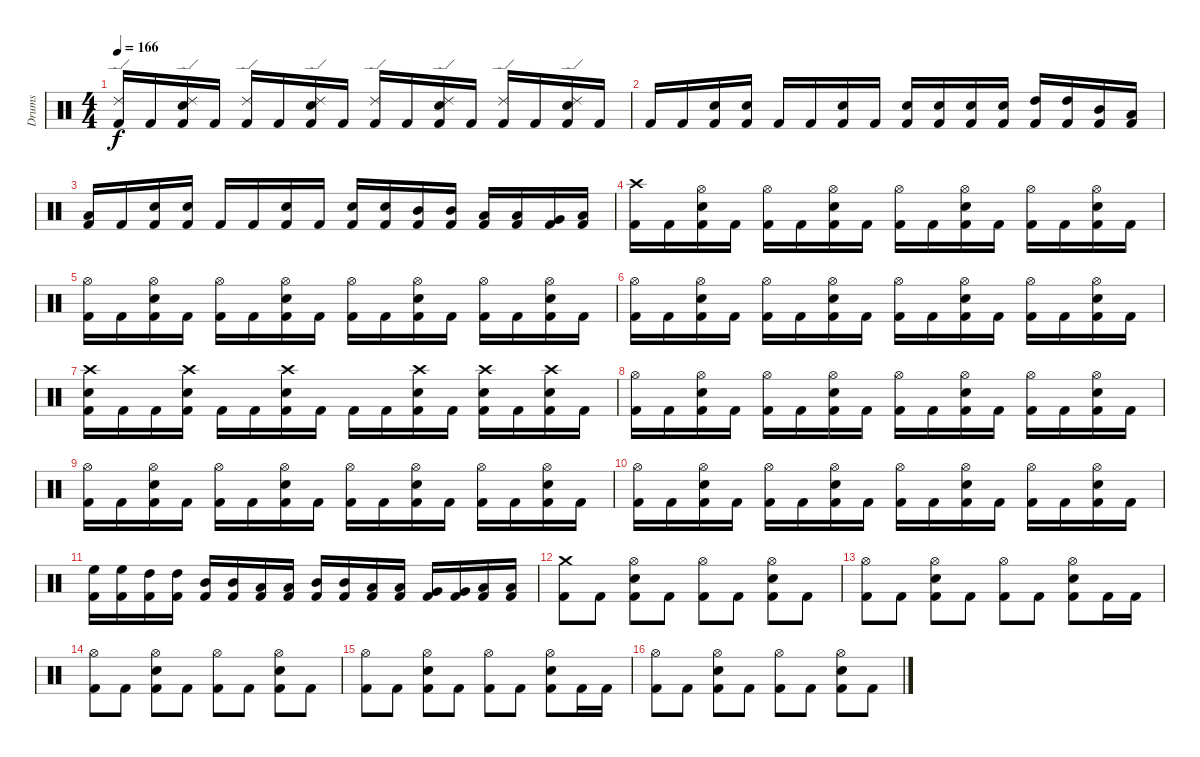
\track ("Drums" "Drums") {instrument percussion}
\staff {score}
\articulation defaults
\ts (4 4)
\tempo 166
\clef neutral
\ks c
("Kick (hit) 2" "Ride (edge) 2").16{dy f} "Kick (hit) 2".16 ("Kick (hit) 2" "Electric Snare (hit)" "Ride (edge) 2").16 "Kick (hit) 2".16 ("Kick (hit) 2" "Ride (edge) 2").16 "Kick (hit) 2".16 ("Kick (hit) 2" "Electric Snare (hit)" "Ride (edge) 2").16 "Kick (hit) 2".16 ("Kick (hit) 2" "Ride (edge) 2").16 "Kick (hit) 2".16 ("Kick (hit) 2" "Electric Snare (hit)" "Ride (edge) 2").16 "Kick (hit) 2".16 ("Kick (hit) 2" "Ride (edge) 2").16 "Kick (hit) 2".16 ("Kick (hit) 2" "Electric Snare (hit)" "Ride (edge) 2").16 "Kick (hit) 2".16 |
"Kick (hit) 2".16 "Kick (hit) 2".16 ("Kick (hit) 2" "Electric Snare (hit)").16 ("Kick (hit) 2" "Electric Snare (hit)").16 "Kick (hit) 2".16 "Kick (hit) 2".16 ("Kick (hit) 2" "Electric Snare (hit)").16 "Kick (hit) 2".16 ("Kick (hit) 2" "Electric Snare (hit)").16 ("Kick (hit) 2" "Electric Snare (hit)").16 ("Kick (hit) 2" "Electric Snare (hit)").16 ("Kick (hit) 2" "Electric Snare (hit)").16 ("Kick (hit) 2" "High Tom (hit)").16 ("Kick (hit) 2" "High Tom (hit)").16 ("Kick (hit) 2" "Mid Tom (hit)").16 ("Kick (hit) 2" "Low Tom (hit)").16 |
("Kick (hit) 2" "Low Floor Tom (hit)").16 "Kick (hit) 2".16 ("Kick (hit) 2" "Electric Snare (hit)").16 ("Kick (hit) 2" "Electric Snare (hit)").16 "Kick (hit) 2".16 "Kick (hit) 2".16 ("Kick (hit) 2" "Electric Snare (hit)").16 "Kick (hit) 2".16 ("Kick (hit) 2" "Electric Snare (hit)").16 ("Kick (hit) 2" "Electric Snare (hit)").16 ("Kick (hit) 2" "Mid Tom (hit)").16 ("Kick (hit) 2" "Mid Tom (hit)").16 ("Kick (hit) 2" "Low Tom (hit)").16 ("Kick (hit) 2" "Low Tom (hit)").16 ("Kick (hit) 2" "Very Low Tom (hit)").16 ("Kick (hit) 2" "Low Floor Tom (hit)").16 |
\section ("" "")
("Kick (hit) 2" "Crash high (hit)").16 "Kick (hit) 2".16 ("Kick (hit) 2" "Electric Snare (hit)" "Hi-Hat (open)").16 "Kick (hit) 2".16 ("Kick (hit) 2" "Hi-Hat (open)").16 "Kick (hit) 2".16 ("Kick (hit) 2" "Electric Snare (hit)" "Hi-Hat (open)").16 "Kick (hit) 2".16 ("Kick (hit) 2" "Hi-Hat (open)").16 "Kick (hit) 2".16 ("Kick (hit) 2" "Electric Snare (hit)" "Hi-Hat (open)").16 "Kick (hit) 2".16 ("Kick (hit) 2" "Hi-Hat (open)").16 "Kick (hit) 2".16 ("Kick (hit) 2" "Electric Snare (hit)" "Hi-Hat (open)").16 "Kick (hit) 2".16 |
("Kick (hit) 2" "Hi-Hat (open)").16 "Kick (hit) 2".16 ("Kick (hit) 2" "Electric Snare (hit)" "Hi-Hat (open)").16 "Kick (hit) 2".16 ("Kick (hit) 2" "Hi-Hat (open)").16 "Kick (hit) 2".16 ("Kick (hit) 2" "Electric Snare (hit)" "Hi-Hat (open)").16 "Kick (hit) 2".16 ("Kick (hit) 2" "Hi-Hat (open)").16 "Kick (hit) 2".16 ("Kick (hit) 2" "Electric Snare (hit)" "Hi-Hat (open)").16 "Kick (hit) 2".16 ("Kick (hit) 2" "Hi-Hat (open)").16 "Kick (hit) 2".16 ("Kick (hit) 2" "Electric Snare (hit)" "Hi-Hat (open)").16 "Kick (hit) 2".16 |
("Kick (hit) 2" "Hi-Hat (open)").16 "Kick (hit) 2".16 ("Kick (hit) 2" "Electric Snare (hit)" "Hi-Hat (open)").16 "Kick (hit) 2".16 ("Kick (hit) 2" "Hi-Hat (open)").16 "Kick (hit) 2".16 ("Kick (hit) 2" "Electric Snare (hit)" "Hi-Hat (open)").16 "Kick (hit) 2".16 ("Kick (hit) 2" "Hi-Hat (open)").16 "Kick (hit) 2".16 ("Kick (hit) 2" "Electric Snare (hit)" "Hi-Hat (open)").16 "Kick (hit) 2".16 ("Kick (hit) 2" "Hi-Hat (open)").16 "Kick (hit) 2".16 ("Kick (hit) 2" "Electric Snare (hit)" "Hi-Hat (open)").16 "Kick (hit) 2".16 |
("Kick (hit) 2" "Electric Snare (hit)" "Crash high (hit)").16 "Kick (hit) 2".16 "Kick (hit) 2".16 ("Kick (hit) 2" "Electric Snare (hit)" "Crash high (hit)").16 "Kick (hit) 2".16 "Kick (hit) 2".16 ("Kick (hit) 2" "Electric Snare (hit)" "Crash high (hit)").16 "Kick (hit) 2".16 "Kick (hit) 2".16 "Kick (hit) 2".16 ("Kick (hit) 2" "Electric Snare (hit)" "Crash high (hit)").16 "Kick (hit) 2".16 ("Kick (hit) 2" "Electric Snare (hit)" "Crash high (hit)").16 "Kick (hit) 2".16 ("Kick (hit) 2" "Electric Snare (hit)" "Crash high (hit)").16 "Kick (hit) 2".16 |
("Kick (hit) 2" "Hi-Hat (open)").16 "Kick (hit) 2".16 ("Kick (hit) 2" "Electric Snare (hit)" "Hi-Hat (open)").16 "Kick (hit) 2".16 ("Kick (hit) 2" "Hi-Hat (open)").16 "Kick (hit) 2".16 ("Kick (hit) 2" "Electric Snare (hit)" "Hi-Hat (open)").16 "Kick (hit) 2".16 ("Kick (hit) 2" "Hi-Hat (open)").16 "Kick (hit) 2".16 ("Kick (hit) 2" "Electric Snare (hit)" "Hi-Hat (open)").16 "Kick (hit) 2".16 ("Kick (hit) 2" "Hi-Hat (open)").16 "Kick (hit) 2".16 ("Kick (hit) 2" "Electric Snare (hit)" "Hi-Hat (open)").16 "Kick (hit) 2".16 |
("Kick (hit) 2" "Hi-Hat (open)").16 "Kick (hit) 2".16 ("Kick (hit) 2" "Electric Snare (hit)" "Hi-Hat (open)").16 "Kick (hit) 2".16 ("Kick (hit) 2" "Hi-Hat (open)").16 "Kick (hit) 2".16 ("Kick (hit) 2" "Electric Snare (hit)" "Hi-Hat (open)").16 "Kick (hit) 2".16 ("Kick (hit) 2" "Hi-Hat (open)").16 "Kick (hit) 2".16 ("Kick (hit) 2" "Electric Snare (hit)" "Hi-Hat (open)").16 "Kick (hit) 2".16 ("Kick (hit) 2" "Hi-Hat (open)").16 "Kick (hit) 2".16 ("Kick (hit) 2" "Electric Snare (hit)" "Hi-Hat (open)").16 "Kick (hit) 2".16 |
("Kick (hit) 2" "Hi-Hat (open)").16 "Kick (hit) 2".16 ("Kick (hit) 2" "Electric Snare (hit)" "Hi-Hat (open)").16 "Kick (hit) 2".16 ("Kick (hit) 2" "Hi-Hat (open)").16 "Kick (hit) 2".16 ("Kick (hit) 2" "Electric Snare (hit)" "Hi-Hat (open)").16 "Kick (hit) 2".16 ("Kick (hit) 2" "Hi-Hat (open)").16 "Kick (hit) 2".16 ("Kick (hit) 2" "Electric Snare (hit)" "Hi-Hat (open)").16 "Kick (hit) 2".16 ("Kick (hit) 2" "Hi-Hat (open)").16 "Kick (hit) 2".16 ("Kick (hit) 2" "Electric Snare (hit)" "Hi-Hat (open)").16 "Kick (hit) 2".16 |
("Kick (hit) 2" "High Floor Tom (hit)").16 ("Kick (hit) 2" "High Floor Tom (hit)").16 ("Kick (hit) 2" "High Tom (hit)").16 ("Kick (hit) 2" "High Tom (hit)").16 ("Kick (hit) 2" "Mid Tom (hit)").16 ("Kick (hit) 2" "Mid Tom (hit)").16 ("Kick (hit) 2" "Low Tom (hit)").16 ("Kick (hit) 2" "Low Tom (hit)").16 ("Kick (hit) 2" "Mid Tom (hit)").16 ("Kick (hit) 2" "Mid Tom (hit)").16 ("Kick (hit) 2" "Low Tom (hit)").16 ("Kick (hit) 2" "Low Tom (hit)").16 ("Kick (hit) 2" "Very Low Tom (hit)").16 ("Kick (hit) 2" "Very Low Tom (hit)").16 ("Kick (hit) 2" "Low Floor Tom (hit)").16 ("Kick (hit) 2" "Low Floor Tom (hit)").16 |
\section ("" "")
("Kick (hit) 2" "Crash medium (hit)").8 "Kick (hit) 2".8 ("Kick (hit) 2" "Electric Snare (hit)" "Hi-Hat (open)").8 "Kick (hit) 2".8 ("Kick (hit) 2" "Hi-Hat (open)").8 "Kick (hit) 2".8 ("Kick (hit) 2" "Electric Snare (hit)" "Hi-Hat (open)").8 "Kick (hit) 2".8 |
("Kick (hit) 2" "Hi-Hat (open)").8 "Kick (hit) 2".8 ("Kick (hit) 2" "Electric Snare (hit)" "Hi-Hat (open)").8 "Kick (hit) 2".8 ("Kick (hit) 2" "Hi-Hat (open)").8 "Kick (hit) 2".8 ("Kick (hit) 2" "Electric Snare (hit)" "Hi-Hat (open)").8 "Kick (hit) 2".16 "Kick (hit) 2".16 |
("Kick (hit) 2" "Hi-Hat (open)").8 "Kick (hit) 2".8 ("Kick (hit) 2" "Electric Snare (hit)" "Hi-Hat (open)").8 "Kick (hit) 2".8 ("Kick (hit) 2" "Hi-Hat (open)").8 "Kick (hit) 2".8 ("Kick (hit) 2" "Electric Snare (hit)" "Hi-Hat (open)").8 "Kick (hit) 2".8 |
("Kick (hit) 2" "Hi-Hat (open)").8 "Kick (hit) 2".8 ("Kick (hit) 2" "Electric Snare (hit)" "Hi-Hat (open)").8 "Kick (hit) 2".8 ("Kick (hit) 2" "Hi-Hat (open)").8 "Kick (hit) 2".8 ("Kick (hit) 2" "Electric Snare (hit)" "Hi-Hat (open)").8 "Kick (hit) 2".16 "Kick (hit) 2".16 |
("Kick (hit) 2" "Hi-Hat (open)").8 "Kick (hit) 2".8 ("Kick (hit) 2" "Electric Snare (hit)" "Hi-Hat (open)").8 "Kick (hit) 2".8 ("Kick (hit) 2" "Hi-Hat (open)").8 "Kick (hit) 2".8 ("Kick (hit) 2" "Electric Snare (hit)" "Hi-Hat (open)").8 "Kick (hit) 2".8
